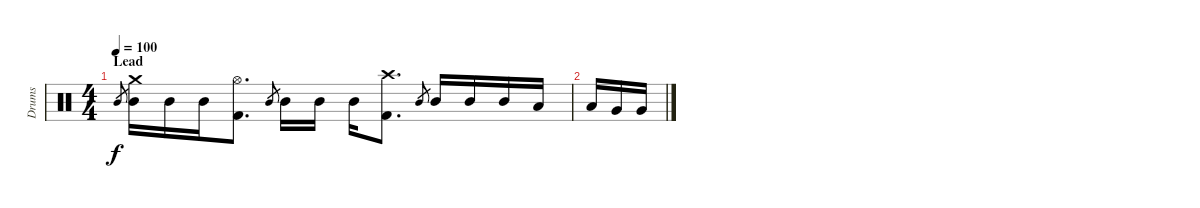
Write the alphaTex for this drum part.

\track ("Drums" "Drums") {instrument percussion}
\staff {score}
\articulation defaults
\ts (4 4)
\section ("" "Lead")
\tempo 100
\clef neutral
\ks c "Mid Tom (hit)".8{gr dy f}
("Crash medium (hit)" "Mid Tom (hit)").16 "Mid Tom (hit)".16 "Mid Tom (hit)".16 ("Hi-Hat (open)" "Kick (hit) 2").8{d} "Mid Tom (hit)".8{gr} "Mid Tom (hit)".16 "Mid Tom (hit)".16 "Mid Tom (hit)".16 ("Crash high (hit)" "Kick (hit) 2").8{d} "Mid Tom (hit)".8{gr} "Mid Tom (hit)".16 "Mid Tom (hit)".16 "Mid Tom (hit)".16 "Low Tom (hit)".16 |
"Low Tom (hit)".16 "Very Low Tom (hit)".16 "Very Low Tom (hit)".16
